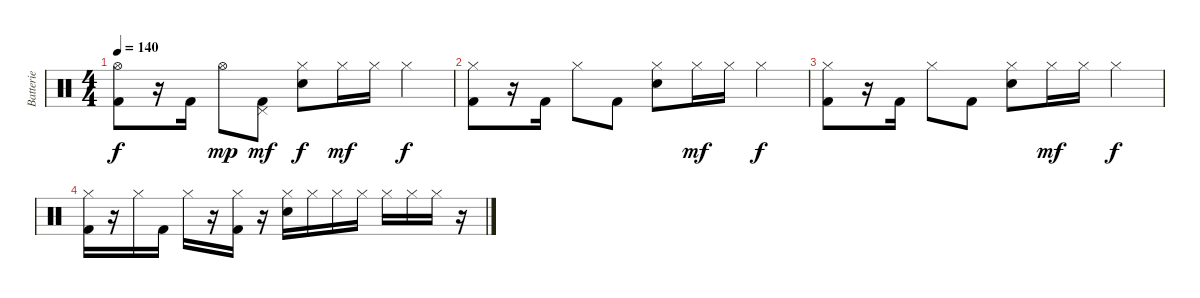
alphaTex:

\track ("Batterie" "Batterie") {instrument percussion}
\staff {score}
\articulation defaults
\ts (4 4)
\tempo 140
\clef neutral
\ks c
("Kick (hit) 2" "Hi-Hat (open)").8{dy f} r.16 "Kick (hit) 2".16 "Hi-Hat (open)".8{dy mp} ("Kick (hit) 2" "Pedal Hi-Hat (hit)").8{dy mf} ("Electric Snare (hit)" "Hi-Hat (closed)").8{dy f} "Hi-Hat (closed)".16{dy mf} "Hi-Hat (closed)".16 "Hi-Hat (closed)".4{dy f} |
("Kick (hit) 2" "Hi-Hat (closed)").8 r.16 "Kick (hit) 2".16 "Hi-Hat (closed)".8 "Kick (hit) 2".8 ("Electric Snare (hit)" "Hi-Hat (closed)").8 "Hi-Hat (closed)".16{dy mf} "Hi-Hat (closed)".16 "Hi-Hat (closed)".4{dy f} |
("Kick (hit) 2" "Hi-Hat (closed)").8 r.16 "Kick (hit) 2".16 "Hi-Hat (closed)".8 "Kick (hit) 2".8 ("Electric Snare (hit)" "Hi-Hat (closed)").8 "Hi-Hat (closed)".16{dy mf} "Hi-Hat (closed)".16 "Hi-Hat (closed)".4{dy f} |
("Kick (hit) 2" "Hi-Hat (closed)").16 r.16 "Hi-Hat (closed)".16 "Kick (hit) 2".16 "Hi-Hat (closed)".16 r.16 ("Kick (hit) 2" "Hi-Hat (closed)").16 r.16 ("Electric Snare (hit)" "Hi-Hat (closed)").16 "Hi-Hat (closed)".16 "Hi-Hat (closed)".16 "Hi-Hat (closed)".16 "Hi-Hat (closed)".16 "Hi-Hat (closed)".16 "Hi-Hat (closed)".16 r.16
